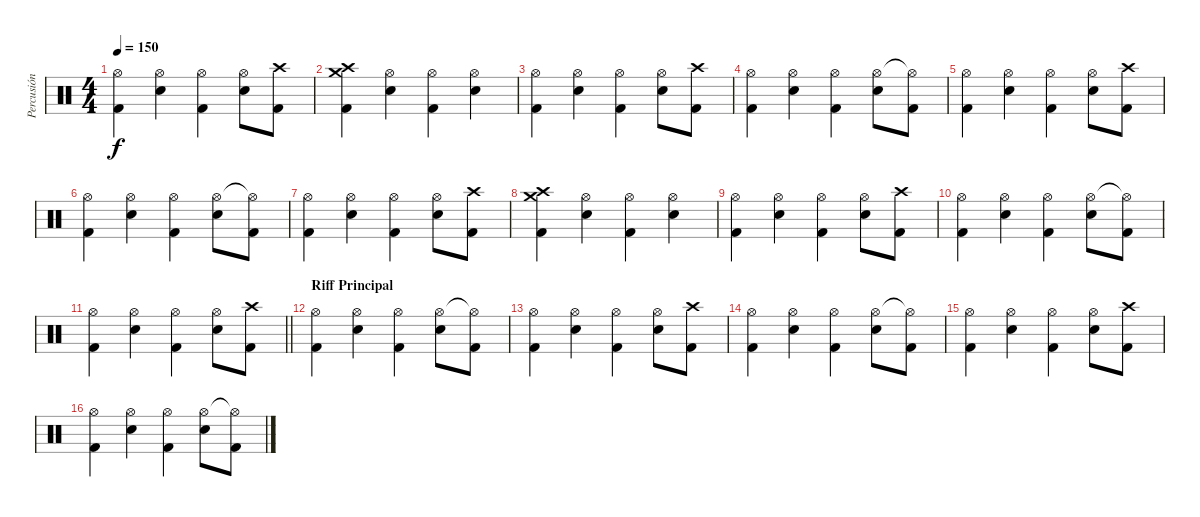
\track ("Percusión" "Percusión") {instrument percussion}
\staff {score}
\articulation defaults
\ts (4 4)
\tempo 150
\clef neutral
\ks c
("Kick (hit) 2" "Hi-Hat (open)").4{dy f} ("Electric Snare (hit)" "Hi-Hat (open)").4 ("Kick (hit) 2" "Hi-Hat (open)").4 ("Electric Snare (hit)" "Hi-Hat (open)").8 ("Kick (hit) 2" "Crash high (hit)").8 |
("Kick (hit) 2" "Crash high (hit)" "Crash medium (hit)").4 ("Electric Snare (hit)" "Hi-Hat (open)").4 ("Kick (hit) 2" "Hi-Hat (open)").4 ("Electric Snare (hit)" "Hi-Hat (open)").4 |
("Kick (hit) 2" "Hi-Hat (open)").4 ("Electric Snare (hit)" "Hi-Hat (open)").4 ("Kick (hit) 2" "Hi-Hat (open)").4 ("Electric Snare (hit)" "Hi-Hat (open)").8 ("Kick (hit) 2" "Crash high (hit)").8 |
("Kick (hit) 2" "Hi-Hat (open)").4 ("Electric Snare (hit)" "Hi-Hat (open)").4 ("Kick (hit) 2" "Hi-Hat (open)").4 ("Electric Snare (hit)" "Hi-Hat (open)").8 ("Kick (hit) 2" "Hi-Hat (open)"{t}).8 |
("Kick (hit) 2" "Hi-Hat (open)").4 ("Electric Snare (hit)" "Hi-Hat (open)").4 ("Kick (hit) 2" "Hi-Hat (open)").4 ("Electric Snare (hit)" "Hi-Hat (open)").8 ("Kick (hit) 2" "Crash high (hit)").8 |
("Kick (hit) 2" "Hi-Hat (open)").4 ("Electric Snare (hit)" "Hi-Hat (open)").4 ("Kick (hit) 2" "Hi-Hat (open)").4 ("Electric Snare (hit)" "Hi-Hat (open)").8 ("Kick (hit) 2" "Hi-Hat (open)"{t}).8 |
("Kick (hit) 2" "Hi-Hat (open)").4 ("Electric Snare (hit)" "Hi-Hat (open)").4 ("Kick (hit) 2" "Hi-Hat (open)").4 ("Electric Snare (hit)" "Hi-Hat (open)").8 ("Kick (hit) 2" "Crash high (hit)").8 |
("Kick (hit) 2" "Crash high (hit)" "Crash medium (hit)").4 ("Electric Snare (hit)" "Hi-Hat (open)").4 ("Kick (hit) 2" "Hi-Hat (open)").4 ("Electric Snare (hit)" "Hi-Hat (open)").4 |
("Kick (hit) 2" "Hi-Hat (open)").4 ("Electric Snare (hit)" "Hi-Hat (open)").4 ("Kick (hit) 2" "Hi-Hat (open)").4 ("Electric Snare (hit)" "Hi-Hat (open)").8 ("Kick (hit) 2" "Crash high (hit)").8 |
("Kick (hit) 2" "Hi-Hat (open)").4 ("Electric Snare (hit)" "Hi-Hat (open)").4 ("Kick (hit) 2" "Hi-Hat (open)").4 ("Electric Snare (hit)" "Hi-Hat (open)").8 ("Kick (hit) 2" "Hi-Hat (open)"{t}).8 |
\barLineRight lightlight
("Kick (hit) 2" "Hi-Hat (open)").4 ("Electric Snare (hit)" "Hi-Hat (open)").4 ("Kick (hit) 2" "Hi-Hat (open)").4 ("Electric Snare (hit)" "Hi-Hat (open)").8 ("Kick (hit) 2" "Crash high (hit)").8 |
\section ("" "Riff Principal")
("Kick (hit) 2" "Hi-Hat (open)").4 ("Electric Snare (hit)" "Hi-Hat (open)").4 ("Kick (hit) 2" "Hi-Hat (open)").4 ("Electric Snare (hit)" "Hi-Hat (open)").8 ("Kick (hit) 2" "Hi-Hat (open)"{t}).8 |
("Kick (hit) 2" "Hi-Hat (open)").4 ("Electric Snare (hit)" "Hi-Hat (open)").4 ("Kick (hit) 2" "Hi-Hat (open)").4 ("Electric Snare (hit)" "Hi-Hat (open)").8 ("Kick (hit) 2" "Crash high (hit)").8 |
("Kick (hit) 2" "Hi-Hat (open)").4 ("Electric Snare (hit)" "Hi-Hat (open)").4 ("Kick (hit) 2" "Hi-Hat (open)").4 ("Electric Snare (hit)" "Hi-Hat (open)").8 ("Kick (hit) 2" "Hi-Hat (open)"{t}).8 |
("Kick (hit) 2" "Hi-Hat (open)").4 ("Electric Snare (hit)" "Hi-Hat (open)").4 ("Kick (hit) 2" "Hi-Hat (open)").4 ("Electric Snare (hit)" "Hi-Hat (open)").8 ("Kick (hit) 2" "Crash high (hit)").8 |
("Kick (hit) 2" "Hi-Hat (open)").4 ("Electric Snare (hit)" "Hi-Hat (open)").4 ("Kick (hit) 2" "Hi-Hat (open)").4 ("Electric Snare (hit)" "Hi-Hat (open)").8 ("Kick (hit) 2" "Hi-Hat (open)"{t}).8
